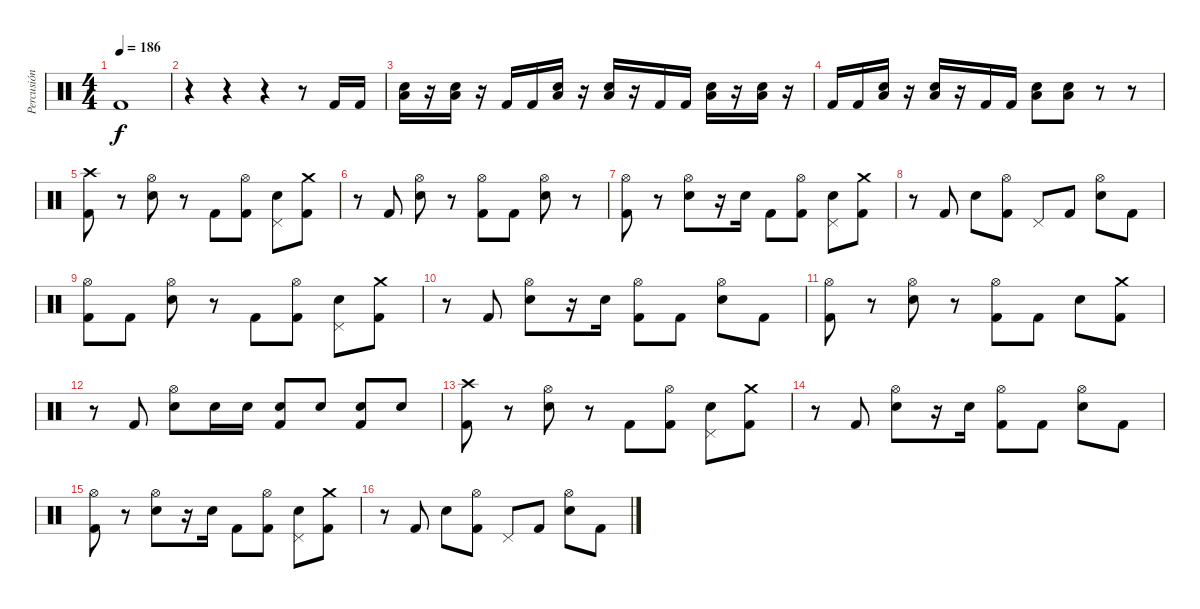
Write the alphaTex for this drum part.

\track ("Percusión" "Percusión") {instrument percussion}
\staff {score}
\articulation defaults
\ts (4 4)
\tempo 186
\clef neutral
\ks c "Kick (hit) 2".1{dy f volume 16}
|
r.4 r.4 r.4 r.8 "Kick (hit) 2".16{volume 16} "Kick (hit) 2".16 |
("Snare (hit) 2" "Low Floor Tom (hit)").16 r.16 ("Snare (hit) 2" "Low Floor Tom (hit)").16 r.16 "Kick (hit) 2".16 "Kick (hit) 2".16 ("Snare (hit) 2" "Low Floor Tom (hit)").16 r.16 ("Snare (hit) 2" "Low Floor Tom (hit)").16 r.16 "Kick (hit) 2".16 "Kick (hit) 2".16 ("Snare (hit) 2" "Low Floor Tom (hit)").16 r.16 ("Snare (hit) 2" "Low Floor Tom (hit)").16 r.16 |
"Kick (hit) 2".16 "Kick (hit) 2".16 ("Snare (hit) 2" "Low Floor Tom (hit)").16 r.16 ("Snare (hit) 2" "Low Floor Tom (hit)").16 r.16 "Kick (hit) 2".16 "Kick (hit) 2".16 ("Snare (hit) 2" "Low Floor Tom (hit)").8 ("Snare (hit) 2" "Low Floor Tom (hit)").8 r.8 r.8 |
("Kick (hit) 2" "Crash high (hit)").8 r.8 ("Snare (hit) 2" "Hi-Hat (open)").8 r.8 "Kick (hit) 2".8 ("Kick (hit) 2" "Hi-Hat (open)").8 ("Snare (hit) 2" "Pedal Hi-Hat (hit)").8 ("Kick (hit) 2" "Crash medium (hit)").8 |
r.8 "Kick (hit) 2".8 ("Snare (hit) 2" "Hi-Hat (open)").8 r.8 ("Kick (hit) 2" "Hi-Hat (open)").8 "Kick (hit) 2".8 ("Snare (hit) 2" "Hi-Hat (open)").8 r.8 |
("Kick (hit) 2" "Hi-Hat (open)").8 r.8 ("Snare (hit) 2" "Hi-Hat (open)").8 r.16 "Snare (hit) 2".16 "Kick (hit) 2".8 ("Kick (hit) 2" "Hi-Hat (open)").8 ("Snare (hit) 2" "Pedal Hi-Hat (hit)").8 ("Kick (hit) 2" "Crash medium (hit)").8 |
r.8 "Kick (hit) 2".8 "Snare (hit) 2".8 ("Kick (hit) 2" "Hi-Hat (open)").8 "Pedal Hi-Hat (hit)".8 "Kick (hit) 2".8 ("Snare (hit) 2" "Hi-Hat (open)").8 "Kick (hit) 2".8 |
("Kick (hit) 2" "Hi-Hat (open)").8 "Kick (hit) 2".8 ("Snare (hit) 2" "Hi-Hat (open)").8 r.8 "Kick (hit) 2".8 ("Kick (hit) 2" "Hi-Hat (open)").8 ("Snare (hit) 2" "Pedal Hi-Hat (hit)").8 ("Kick (hit) 2" "Crash medium (hit)").8 |
r.8 "Kick (hit) 2".8 ("Snare (hit) 2" "Hi-Hat (open)").8 r.16 "Snare (hit) 2".16 ("Kick (hit) 2" "Hi-Hat (open)").8 "Kick (hit) 2".8 ("Snare (hit) 2" "Hi-Hat (open)").8 "Kick (hit) 2".8 |
("Kick (hit) 2" "Hi-Hat (open)").8 r.8 ("Snare (hit) 2" "Hi-Hat (open)").8 r.8 ("Kick (hit) 2" "Hi-Hat (open)").8 "Kick (hit) 2".8 "Snare (hit) 2".8 ("Kick (hit) 2" "Crash medium (hit)").8 |
r.8 "Kick (hit) 2".8 ("Snare (hit) 2" "Hi-Hat (open)").8 "Snare (hit) 2".16 "Snare (hit) 2".16 ("Kick (hit) 2" "Snare (hit) 2").8 "Snare (hit) 2".8 ("Kick (hit) 2" "Snare (hit) 2").8 "Snare (hit) 2".8 |
("Kick (hit) 2" "Crash high (hit)").8 r.8 ("Snare (hit) 2" "Hi-Hat (open)").8 r.8 "Kick (hit) 2".8 ("Kick (hit) 2" "Hi-Hat (open)").8 ("Snare (hit) 2" "Pedal Hi-Hat (hit)").8 ("Kick (hit) 2" "Crash medium (hit)").8 |
r.8 "Kick (hit) 2".8 ("Snare (hit) 2" "Hi-Hat (open)").8 r.16 "Snare (hit) 2".16 ("Kick (hit) 2" "Hi-Hat (open)").8 "Kick (hit) 2".8 ("Snare (hit) 2" "Hi-Hat (open)").8 "Kick (hit) 2".8 |
("Kick (hit) 2" "Hi-Hat (open)").8 r.8 ("Snare (hit) 2" "Hi-Hat (open)").8 r.16 "Snare (hit) 2".16 "Kick (hit) 2".8 ("Kick (hit) 2" "Hi-Hat (open)").8 ("Snare (hit) 2" "Pedal Hi-Hat (hit)").8 ("Kick (hit) 2" "Crash medium (hit)").8 |
r.8 "Kick (hit) 2".8 "Snare (hit) 2".8 ("Kick (hit) 2" "Hi-Hat (open)").8 "Pedal Hi-Hat (hit)".8 "Kick (hit) 2".8 ("Snare (hit) 2" "Hi-Hat (open)").8 "Kick (hit) 2".8
